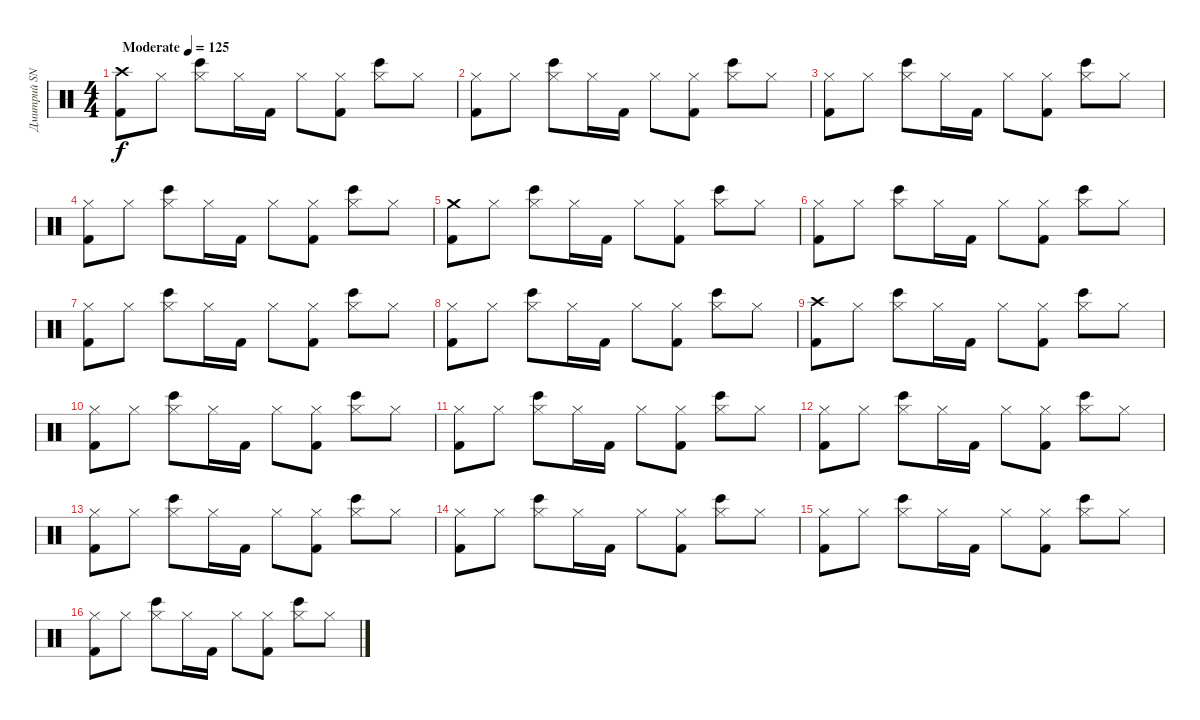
\track ("Дмитрий SNAKE Хакимов" "Дмитрий SN") {instrument percussion}
\staff {score}
\articulation defaults
\ts (4 4)
\tempo (125 "Moderate")
\clef neutral
\ks c
("Crash high (hit)" "Kick (hit) 2").8{dy f} "Hi-Hat (closed)".8 ("Hi-Hat (closed)" "Bongo High (hit)").8 "Hi-Hat (closed)".16 "Kick (hit) 2".16 "Hi-Hat (closed)".8 ("Hi-Hat (closed)" "Kick (hit) 2").8 ("Hi-Hat (closed)" "Bongo High (hit)").8 "Hi-Hat (closed)".8 |
("Hi-Hat (closed)" "Kick (hit) 2").8 "Hi-Hat (closed)".8 ("Hi-Hat (closed)" "Bongo High (hit)").8 "Hi-Hat (closed)".16 "Kick (hit) 2".16 "Hi-Hat (closed)".8 ("Hi-Hat (closed)" "Kick (hit) 2").8 ("Hi-Hat (closed)" "Bongo High (hit)").8 "Hi-Hat (closed)".8 |
("Hi-Hat (closed)" "Kick (hit) 2").8 "Hi-Hat (closed)".8 ("Hi-Hat (closed)" "Bongo High (hit)").8 "Hi-Hat (closed)".16 "Kick (hit) 2".16 "Hi-Hat (closed)".8 ("Hi-Hat (closed)" "Kick (hit) 2").8 ("Hi-Hat (closed)" "Bongo High (hit)").8 "Hi-Hat (closed)".8 |
("Hi-Hat (closed)" "Kick (hit) 2").8 "Hi-Hat (closed)".8 ("Hi-Hat (closed)" "Bongo High (hit)").8 "Hi-Hat (closed)".16 "Kick (hit) 2".16 "Hi-Hat (closed)".8 ("Hi-Hat (closed)" "Kick (hit) 2").8 ("Hi-Hat (closed)" "Bongo High (hit)").8 "Hi-Hat (closed)".8 |
("Crash medium (hit)" "Kick (hit) 2").8 "Hi-Hat (closed)".8 ("Hi-Hat (closed)" "Bongo High (hit)").8 "Hi-Hat (closed)".16 "Kick (hit) 2".16 "Hi-Hat (closed)".8 ("Hi-Hat (closed)" "Kick (hit) 2").8 ("Hi-Hat (closed)" "Bongo High (hit)").8 "Hi-Hat (closed)".8 |
("Hi-Hat (closed)" "Kick (hit) 2").8 "Hi-Hat (closed)".8 ("Hi-Hat (closed)" "Bongo High (hit)").8 "Hi-Hat (closed)".16 "Kick (hit) 2".16 "Hi-Hat (closed)".8 ("Hi-Hat (closed)" "Kick (hit) 2").8 ("Hi-Hat (closed)" "Bongo High (hit)").8 "Hi-Hat (closed)".8 |
("Hi-Hat (closed)" "Kick (hit) 2").8 "Hi-Hat (closed)".8 ("Hi-Hat (closed)" "Bongo High (hit)").8 "Hi-Hat (closed)".16 "Kick (hit) 2".16 "Hi-Hat (closed)".8 ("Hi-Hat (closed)" "Kick (hit) 2").8 ("Hi-Hat (closed)" "Bongo High (hit)").8 "Hi-Hat (closed)".8 |
("Hi-Hat (closed)" "Kick (hit) 2").8 "Hi-Hat (closed)".8 ("Hi-Hat (closed)" "Bongo High (hit)").8 "Hi-Hat (closed)".16 "Kick (hit) 2".16 "Hi-Hat (closed)".8 ("Hi-Hat (closed)" "Kick (hit) 2").8 ("Hi-Hat (closed)" "Bongo High (hit)").8 "Hi-Hat (closed)".8 |
("Crash high (hit)" "Kick (hit) 2").8 "Hi-Hat (closed)".8 ("Hi-Hat (closed)" "Bongo High (hit)").8 "Hi-Hat (closed)".16 "Kick (hit) 2".16 "Hi-Hat (closed)".8 ("Hi-Hat (closed)" "Kick (hit) 2").8 ("Hi-Hat (closed)" "Bongo High (hit)").8 "Hi-Hat (closed)".8 |
("Hi-Hat (closed)" "Kick (hit) 2").8 "Hi-Hat (closed)".8 ("Hi-Hat (closed)" "Bongo High (hit)").8 "Hi-Hat (closed)".16 "Kick (hit) 2".16 "Hi-Hat (closed)".8 ("Hi-Hat (closed)" "Kick (hit) 2").8 ("Hi-Hat (closed)" "Bongo High (hit)").8 "Hi-Hat (closed)".8 |
("Hi-Hat (closed)" "Kick (hit) 2").8 "Hi-Hat (closed)".8 ("Hi-Hat (closed)" "Bongo High (hit)").8 "Hi-Hat (closed)".16 "Kick (hit) 2".16 "Hi-Hat (closed)".8 ("Hi-Hat (closed)" "Kick (hit) 2").8 ("Hi-Hat (closed)" "Bongo High (hit)").8 "Hi-Hat (closed)".8 |
("Hi-Hat (closed)" "Kick (hit) 2").8 "Hi-Hat (closed)".8 ("Hi-Hat (closed)" "Bongo High (hit)").8 "Hi-Hat (closed)".16 "Kick (hit) 2".16 "Hi-Hat (closed)".8 ("Hi-Hat (closed)" "Kick (hit) 2").8 ("Hi-Hat (closed)" "Bongo High (hit)").8 "Hi-Hat (closed)".8 |
("Hi-Hat (closed)" "Kick (hit) 2").8 "Hi-Hat (closed)".8 ("Hi-Hat (closed)" "Bongo High (hit)").8 "Hi-Hat (closed)".16 "Kick (hit) 2".16 "Hi-Hat (closed)".8 ("Hi-Hat (closed)" "Kick (hit) 2").8 ("Hi-Hat (closed)" "Bongo High (hit)").8 "Hi-Hat (closed)".8 |
("Hi-Hat (closed)" "Kick (hit) 2").8 "Hi-Hat (closed)".8 ("Hi-Hat (closed)" "Bongo High (hit)").8 "Hi-Hat (closed)".16 "Kick (hit) 2".16 "Hi-Hat (closed)".8 ("Hi-Hat (closed)" "Kick (hit) 2").8 ("Hi-Hat (closed)" "Bongo High (hit)").8 "Hi-Hat (closed)".8 |
("Hi-Hat (closed)" "Kick (hit) 2").8 "Hi-Hat (closed)".8 ("Hi-Hat (closed)" "Bongo High (hit)").8 "Hi-Hat (closed)".16 "Kick (hit) 2".16 "Hi-Hat (closed)".8 ("Hi-Hat (closed)" "Kick (hit) 2").8 ("Hi-Hat (closed)" "Bongo High (hit)").8 "Hi-Hat (closed)".8 |
("Hi-Hat (closed)" "Kick (hit) 2").8 "Hi-Hat (closed)".8 ("Hi-Hat (closed)" "Bongo High (hit)").8 "Hi-Hat (closed)".16 "Kick (hit) 2".16 "Hi-Hat (closed)".8 ("Hi-Hat (closed)" "Kick (hit) 2").8 ("Hi-Hat (closed)" "Bongo High (hit)").8 "Hi-Hat (closed)".8
